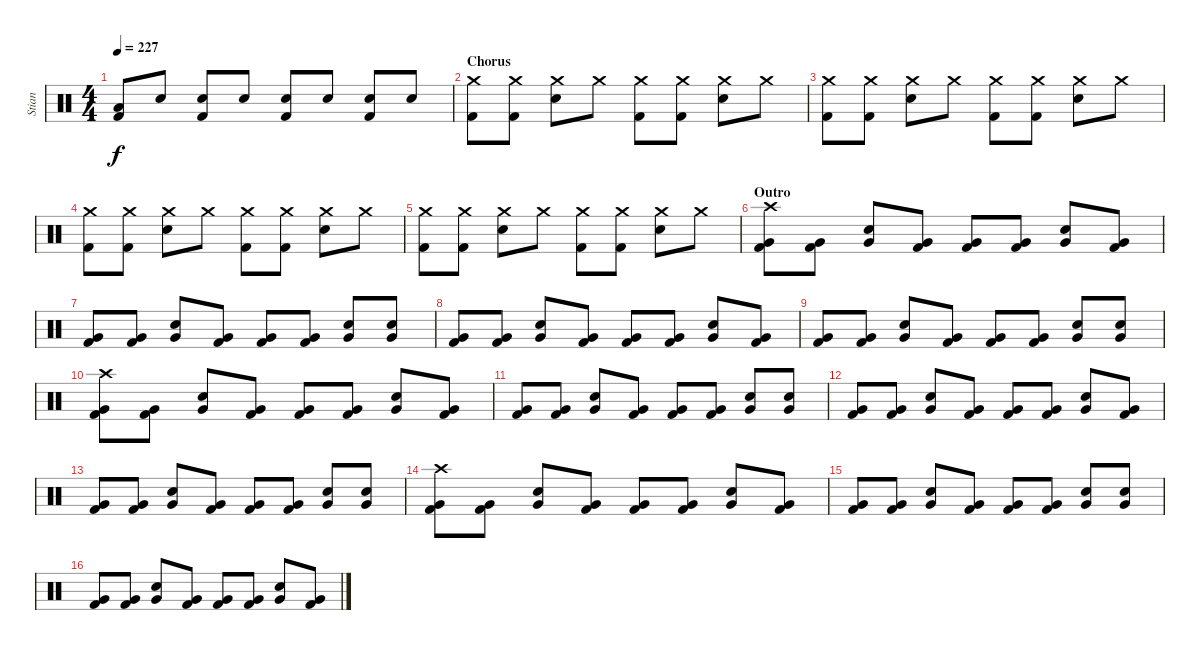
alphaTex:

\track ("Stian" "Stian") {instrument percussion}
\staff {score}
\articulation defaults
\ts (4 4)
\tempo 227
\clef neutral
\ks c
("Kick (hit) 2" "Low Tom (hit)").8{dy f} "Electric Snare (hit)".8 ("Kick (hit) 2" "Electric Snare (hit)").8 "Electric Snare (hit)".8 ("Kick (hit) 2" "Electric Snare (hit)").8 "Electric Snare (hit)".8 ("Kick (hit) 2" "Electric Snare (hit)").8 "Electric Snare (hit)".8 |
\section ("" "Chorus")
("Crash medium (hit)" "Kick (hit) 2").8 ("Crash medium (hit)" "Kick (hit) 2").8 ("Crash medium (hit)" "Electric Snare (hit)").8 "Crash medium (hit)".8 ("Crash medium (hit)" "Kick (hit) 2").8 ("Crash medium (hit)" "Kick (hit) 2").8 ("Crash medium (hit)" "Electric Snare (hit)").8 "Crash medium (hit)".8 |
("Crash medium (hit)" "Kick (hit) 2").8 ("Crash medium (hit)" "Kick (hit) 2").8 ("Crash medium (hit)" "Electric Snare (hit)").8 "Crash medium (hit)".8 ("Crash medium (hit)" "Kick (hit) 2").8 ("Crash medium (hit)" "Kick (hit) 2").8 ("Crash medium (hit)" "Electric Snare (hit)").8 "Crash medium (hit)".8 |
("Crash medium (hit)" "Kick (hit) 2").8 ("Crash medium (hit)" "Kick (hit) 2").8 ("Crash medium (hit)" "Electric Snare (hit)").8 "Crash medium (hit)".8 ("Crash medium (hit)" "Kick (hit) 2").8 ("Crash medium (hit)" "Kick (hit) 2").8 ("Crash medium (hit)" "Electric Snare (hit)").8 "Crash medium (hit)".8 |
("Crash medium (hit)" "Kick (hit) 2").8 ("Crash medium (hit)" "Kick (hit) 2").8 ("Crash medium (hit)" "Electric Snare (hit)").8 "Crash medium (hit)".8 ("Crash medium (hit)" "Kick (hit) 2").8 ("Crash medium (hit)" "Kick (hit) 2").8 ("Crash medium (hit)" "Electric Snare (hit)").8 "Crash medium (hit)".8 |
\section ("" "Outro")
("Very Low Tom (hit)" "Crash high (hit)" "Kick (hit) 2").8 ("Very Low Tom (hit)" "Kick (hit) 2").8 ("Very Low Tom (hit)" "Electric Snare (hit)").8 ("Very Low Tom (hit)" "Kick (hit) 2").8 ("Very Low Tom (hit)" "Kick (hit) 2").8 ("Very Low Tom (hit)" "Kick (hit) 2").8 ("Very Low Tom (hit)" "Electric Snare (hit)").8 ("Very Low Tom (hit)" "Kick (hit) 2").8 |
("Very Low Tom (hit)" "Kick (hit) 2").8 ("Very Low Tom (hit)" "Kick (hit) 2").8 ("Very Low Tom (hit)" "Electric Snare (hit)").8 ("Very Low Tom (hit)" "Kick (hit) 2").8 ("Very Low Tom (hit)" "Kick (hit) 2").8 ("Very Low Tom (hit)" "Kick (hit) 2").8 ("Very Low Tom (hit)" "Electric Snare (hit)").8 ("Very Low Tom (hit)" "Electric Snare (hit)").8 |
("Very Low Tom (hit)" "Kick (hit) 2").8 ("Very Low Tom (hit)" "Kick (hit) 2").8 ("Very Low Tom (hit)" "Electric Snare (hit)").8 ("Very Low Tom (hit)" "Kick (hit) 2").8 ("Very Low Tom (hit)" "Kick (hit) 2").8 ("Very Low Tom (hit)" "Kick (hit) 2").8 ("Very Low Tom (hit)" "Electric Snare (hit)").8 ("Very Low Tom (hit)" "Kick (hit) 2").8 |
("Very Low Tom (hit)" "Kick (hit) 2").8 ("Very Low Tom (hit)" "Kick (hit) 2").8 ("Very Low Tom (hit)" "Electric Snare (hit)").8 ("Very Low Tom (hit)" "Kick (hit) 2").8 ("Very Low Tom (hit)" "Kick (hit) 2").8 ("Very Low Tom (hit)" "Kick (hit) 2").8 ("Very Low Tom (hit)" "Electric Snare (hit)").8 ("Very Low Tom (hit)" "Electric Snare (hit)").8 |
("Very Low Tom (hit)" "Crash high (hit)" "Kick (hit) 2").8 ("Very Low Tom (hit)" "Kick (hit) 2").8 ("Very Low Tom (hit)" "Electric Snare (hit)").8 ("Very Low Tom (hit)" "Kick (hit) 2").8 ("Very Low Tom (hit)" "Kick (hit) 2").8 ("Very Low Tom (hit)" "Kick (hit) 2").8 ("Very Low Tom (hit)" "Electric Snare (hit)").8 ("Very Low Tom (hit)" "Kick (hit) 2").8 |
("Very Low Tom (hit)" "Kick (hit) 2").8 ("Very Low Tom (hit)" "Kick (hit) 2").8 ("Very Low Tom (hit)" "Electric Snare (hit)").8 ("Very Low Tom (hit)" "Kick (hit) 2").8 ("Very Low Tom (hit)" "Kick (hit) 2").8 ("Very Low Tom (hit)" "Kick (hit) 2").8 ("Very Low Tom (hit)" "Electric Snare (hit)").8 ("Very Low Tom (hit)" "Electric Snare (hit)").8 |
("Very Low Tom (hit)" "Kick (hit) 2").8 ("Very Low Tom (hit)" "Kick (hit) 2").8 ("Very Low Tom (hit)" "Electric Snare (hit)").8 ("Very Low Tom (hit)" "Kick (hit) 2").8 ("Very Low Tom (hit)" "Kick (hit) 2").8 ("Very Low Tom (hit)" "Kick (hit) 2").8 ("Very Low Tom (hit)" "Electric Snare (hit)").8 ("Very Low Tom (hit)" "Kick (hit) 2").8 |
("Very Low Tom (hit)" "Kick (hit) 2").8 ("Very Low Tom (hit)" "Kick (hit) 2").8 ("Very Low Tom (hit)" "Electric Snare (hit)").8 ("Very Low Tom (hit)" "Kick (hit) 2").8 ("Very Low Tom (hit)" "Kick (hit) 2").8 ("Very Low Tom (hit)" "Kick (hit) 2").8 ("Very Low Tom (hit)" "Electric Snare (hit)").8 ("Very Low Tom (hit)" "Electric Snare (hit)").8 |
("Very Low Tom (hit)" "Crash high (hit)" "Kick (hit) 2").8 ("Very Low Tom (hit)" "Kick (hit) 2").8 ("Very Low Tom (hit)" "Electric Snare (hit)").8 ("Very Low Tom (hit)" "Kick (hit) 2").8 ("Very Low Tom (hit)" "Kick (hit) 2").8 ("Very Low Tom (hit)" "Kick (hit) 2").8 ("Very Low Tom (hit)" "Electric Snare (hit)").8 ("Very Low Tom (hit)" "Kick (hit) 2").8 |
("Very Low Tom (hit)" "Kick (hit) 2").8 ("Very Low Tom (hit)" "Kick (hit) 2").8 ("Very Low Tom (hit)" "Electric Snare (hit)").8 ("Very Low Tom (hit)" "Kick (hit) 2").8 ("Very Low Tom (hit)" "Kick (hit) 2").8 ("Very Low Tom (hit)" "Kick (hit) 2").8 ("Very Low Tom (hit)" "Electric Snare (hit)").8 ("Very Low Tom (hit)" "Electric Snare (hit)").8 |
("Very Low Tom (hit)" "Kick (hit) 2").8 ("Very Low Tom (hit)" "Kick (hit) 2").8 ("Very Low Tom (hit)" "Electric Snare (hit)").8 ("Very Low Tom (hit)" "Kick (hit) 2").8 ("Very Low Tom (hit)" "Kick (hit) 2").8 ("Very Low Tom (hit)" "Kick (hit) 2").8 ("Very Low Tom (hit)" "Electric Snare (hit)").8 ("Very Low Tom (hit)" "Kick (hit) 2").8
